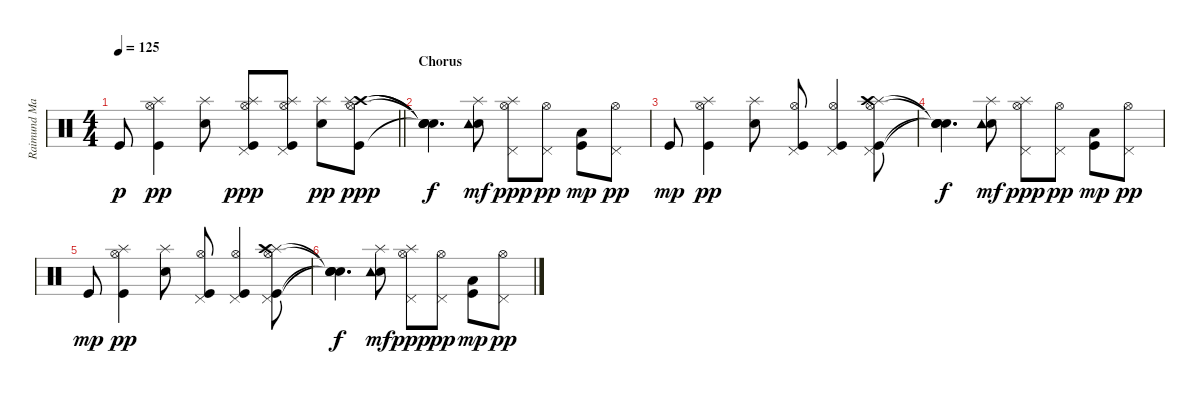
\track ("Raimund Marasigan (Drums)" "Raimund Ma") {instrument percussion}
\staff {score}
\articulation defaults
\ts (4 4)
\tempo 125
\clef neutral
\barLineRight lightlight
\ks c "Kick (hit)".8{dy p}
("Kick (hit)" "Splash (hit)" "Hi-Hat (open)").4{dy pp} ("Electric Snare (hit)" "Splash (hit)").8 ("Kick (hit)" "Pedal Hi-Hat (hit)" "Hi-Hat (open)" "Splash (hit)").8{dy ppp} ("Kick (hit)" "Pedal Hi-Hat (hit)" "Hi-Hat (open)" "Splash (hit)").8 ("Electric Snare (hit)" "Splash (hit)").8{dy pp} ("Crash high (hit)" "Kick (hit)" "Hi-Hat (open)" "Splash (hit)").8{dy ppp} |
\section ("" "Chorus")
("Snare (hit)"{t} "Snare (hit)"{t} "Snare (hit)"{t} "Snare (hit)"{t}).4{d dy f} ("Electric Snare (hit)" "Splash (hit)" "Tambourine (hit)").8{dy mf} ("Pedal Hi-Hat (hit)" "Hi-Hat (open)" "Splash (hit)").8{dy ppp} ("Pedal Hi-Hat (hit)" "Hi-Hat (open)").8{dy pp} ("Kick (hit)" "Low Tom (hit)").8{dy mp} ("Pedal Hi-Hat (hit)" "Hi-Hat (open)").8{dy pp} |
"Kick (hit)".8{dy mp} ("Kick (hit)" "Splash (hit)" "Hi-Hat (open)").4{dy pp} ("Electric Snare (hit)" "Splash (hit)").8 ("Kick (hit)" "Pedal Hi-Hat (hit)" "Hi-Hat (open)").8 ("Kick (hit)" "Pedal Hi-Hat (hit)" "Hi-Hat (open)").4 ("Kick (hit)" "Pedal Hi-Hat (hit)" "Hi-Hat (open)" "Splash (hit)" "Crash high (hit)").8 |
("Snare (hit)"{t} "Snare (hit)"{t} "Snare (hit)"{t} "Snare (hit)"{t}).4{d dy f} ("Electric Snare (hit)" "Splash (hit)" "Tambourine (hit)").8{dy mf} ("Pedal Hi-Hat (hit)" "Hi-Hat (open)" "Splash (hit)").8{dy ppp} ("Pedal Hi-Hat (hit)" "Hi-Hat (open)").8{dy pp} ("Kick (hit)" "Low Tom (hit)").8{dy mp} ("Pedal Hi-Hat (hit)" "Hi-Hat (open)").8{dy pp} |
"Kick (hit)".8{dy mp} ("Kick (hit)" "Splash (hit)" "Hi-Hat (open)").4{dy pp} ("Electric Snare (hit)" "Splash (hit)").8 ("Kick (hit)" "Pedal Hi-Hat (hit)" "Hi-Hat (open)").8 ("Kick (hit)" "Pedal Hi-Hat (hit)" "Hi-Hat (open)").4 ("Kick (hit)" "Pedal Hi-Hat (hit)" "Hi-Hat (open)" "Splash (hit)" "Crash high (hit)").8 |
("Snare (hit)"{t} "Snare (hit)"{t} "Snare (hit)"{t} "Snare (hit)"{t}).4{d dy f} ("Electric Snare (hit)" "Splash (hit)" "Tambourine (hit)").8{dy mf} ("Pedal Hi-Hat (hit)" "Hi-Hat (open)" "Splash (hit)").8{dy ppp} ("Pedal Hi-Hat (hit)" "Hi-Hat (open)").8{dy pp} ("Kick (hit)" "Low Tom (hit)").8{dy mp} ("Pedal Hi-Hat (hit)" "Hi-Hat (open)").8{dy pp}
